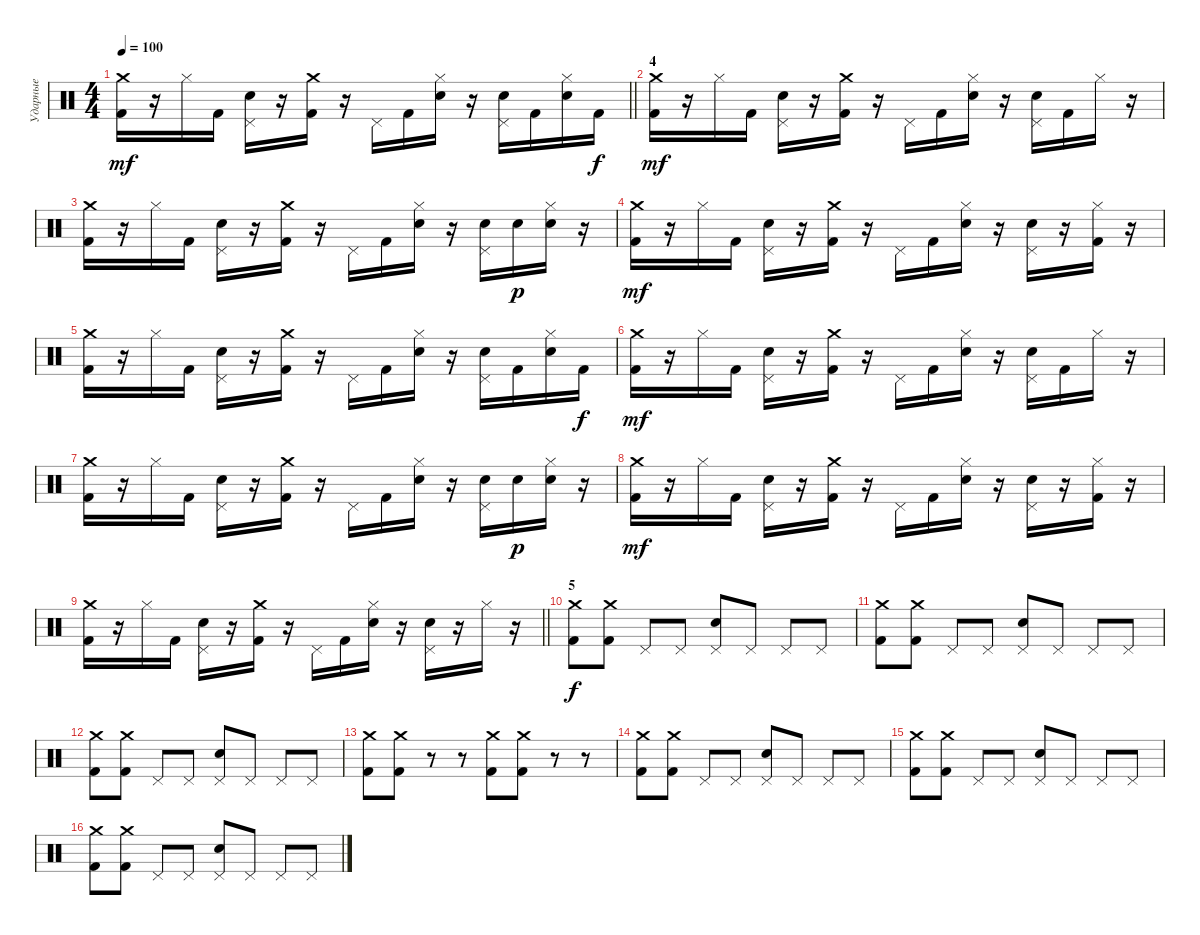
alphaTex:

\track ("Ударные" "Ударные") {instrument percussion}
\staff {score}
\articulation defaults
\ts (4 4)
\tempo 100
\clef neutral
\barLineRight lightlight
\ks c
("Crash medium (hit)" "Kick (hit) 2").16{dy mf} r.16 "Hi-Hat (closed)".16 "Kick (hit) 2".16 ("Pedal Hi-Hat (hit)" "Snare (hit) 2").16 r.16 ("Crash medium (hit)" "Kick (hit) 2").16 r.16 "Pedal Hi-Hat (hit)".16 "Kick (hit) 2".16 ("Hi-Hat (closed)" "Snare (hit) 2").16 r.16 ("Pedal Hi-Hat (hit)" "Snare (hit) 2").16 "Kick (hit) 2".16 ("Hi-Hat (closed)" "Snare (hit) 2").16 "Kick (hit) 2".16{dy f} |
\section ("" "4")
("Crash medium (hit)" "Kick (hit) 2").16{dy mf} r.16 "Hi-Hat (closed)".16 "Kick (hit) 2".16 ("Pedal Hi-Hat (hit)" "Snare (hit) 2").16 r.16 ("Crash medium (hit)" "Kick (hit) 2").16 r.16 "Pedal Hi-Hat (hit)".16 "Kick (hit) 2".16 ("Hi-Hat (closed)" "Snare (hit) 2").16 r.16 ("Pedal Hi-Hat (hit)" "Snare (hit) 2").16 "Kick (hit) 2".16 "Hi-Hat (closed)".16 r.16 |
("Crash medium (hit)" "Kick (hit) 2").16 r.16 "Hi-Hat (closed)".16 "Kick (hit) 2".16 ("Pedal Hi-Hat (hit)" "Snare (hit) 2").16 r.16 ("Crash medium (hit)" "Kick (hit) 2").16 r.16 "Pedal Hi-Hat (hit)".16 "Kick (hit) 2".16 ("Hi-Hat (closed)" "Snare (hit) 2").16 r.16 ("Pedal Hi-Hat (hit)" "Snare (hit) 2").16 "Snare (hit) 2".16{dy p} ("Hi-Hat (closed)" "Snare (hit) 2").16 r.16 |
("Crash medium (hit)" "Kick (hit) 2").16{dy mf} r.16 "Hi-Hat (closed)".16 "Kick (hit) 2".16 ("Pedal Hi-Hat (hit)" "Snare (hit) 2").16 r.16 ("Crash medium (hit)" "Kick (hit) 2").16 r.16 "Pedal Hi-Hat (hit)".16 "Kick (hit) 2".16 ("Hi-Hat (closed)" "Snare (hit) 2").16 r.16 ("Pedal Hi-Hat (hit)" "Snare (hit) 2").16 r.16 ("Hi-Hat (closed)" "Kick (hit) 2").16 r.16 |
("Crash medium (hit)" "Kick (hit) 2").16 r.16 "Hi-Hat (closed)".16 "Kick (hit) 2".16 ("Pedal Hi-Hat (hit)" "Snare (hit) 2").16 r.16 ("Crash medium (hit)" "Kick (hit) 2").16 r.16 "Pedal Hi-Hat (hit)".16 "Kick (hit) 2".16 ("Hi-Hat (closed)" "Snare (hit) 2").16 r.16 ("Pedal Hi-Hat (hit)" "Snare (hit) 2").16 "Kick (hit) 2".16 ("Hi-Hat (closed)" "Snare (hit) 2").16 "Kick (hit) 2".16{dy f} |
("Crash medium (hit)" "Kick (hit) 2").16{dy mf} r.16 "Hi-Hat (closed)".16 "Kick (hit) 2".16 ("Pedal Hi-Hat (hit)" "Snare (hit) 2").16 r.16 ("Crash medium (hit)" "Kick (hit) 2").16 r.16 "Pedal Hi-Hat (hit)".16 "Kick (hit) 2".16 ("Hi-Hat (closed)" "Snare (hit) 2").16 r.16 ("Pedal Hi-Hat (hit)" "Snare (hit) 2").16 "Kick (hit) 2".16 "Hi-Hat (closed)".16 r.16 |
("Crash medium (hit)" "Kick (hit) 2").16 r.16 "Hi-Hat (closed)".16 "Kick (hit) 2".16 ("Pedal Hi-Hat (hit)" "Snare (hit) 2").16 r.16 ("Crash medium (hit)" "Kick (hit) 2").16 r.16 "Pedal Hi-Hat (hit)".16 "Kick (hit) 2".16 ("Hi-Hat (closed)" "Snare (hit) 2").16 r.16 ("Pedal Hi-Hat (hit)" "Snare (hit) 2").16 "Snare (hit) 2".16{dy p} ("Hi-Hat (closed)" "Snare (hit) 2").16 r.16 |
("Crash medium (hit)" "Kick (hit) 2").16{dy mf} r.16 "Hi-Hat (closed)".16 "Kick (hit) 2".16 ("Pedal Hi-Hat (hit)" "Snare (hit) 2").16 r.16 ("Crash medium (hit)" "Kick (hit) 2").16 r.16 "Pedal Hi-Hat (hit)".16 "Kick (hit) 2".16 ("Hi-Hat (closed)" "Snare (hit) 2").16 r.16 ("Pedal Hi-Hat (hit)" "Snare (hit) 2").16 r.16 ("Hi-Hat (closed)" "Kick (hit) 2").16 r.16 |
\barLineRight lightlight
("Crash medium (hit)" "Kick (hit) 2").16 r.16 "Hi-Hat (closed)".16 "Kick (hit) 2".16 ("Pedal Hi-Hat (hit)" "Snare (hit) 2").16 r.16 ("Crash medium (hit)" "Kick (hit) 2").16 r.16 "Pedal Hi-Hat (hit)".16 "Kick (hit) 2".16 ("Hi-Hat (closed)" "Snare (hit) 2").16 r.16 ("Pedal Hi-Hat (hit)" "Snare (hit) 2").16 r.16 "Hi-Hat (closed)".16 r.16 |
\section ("" "5")
("Crash medium (hit)" "Kick (hit) 2").8{dy f} ("Crash medium (hit)" "Kick (hit) 2").8 "Pedal Hi-Hat (hit)".8 "Pedal Hi-Hat (hit)".8 ("Pedal Hi-Hat (hit)" "Snare (hit) 2").8 "Pedal Hi-Hat (hit)".8 "Pedal Hi-Hat (hit)".8 "Pedal Hi-Hat (hit)".8 |
("Crash medium (hit)" "Kick (hit) 2").8 ("Crash medium (hit)" "Kick (hit) 2").8 "Pedal Hi-Hat (hit)".8 "Pedal Hi-Hat (hit)".8 ("Pedal Hi-Hat (hit)" "Snare (hit) 2").8 "Pedal Hi-Hat (hit)".8 "Pedal Hi-Hat (hit)".8 "Pedal Hi-Hat (hit)".8 |
("Crash medium (hit)" "Kick (hit) 2").8 ("Crash medium (hit)" "Kick (hit) 2").8 "Pedal Hi-Hat (hit)".8 "Pedal Hi-Hat (hit)".8 ("Pedal Hi-Hat (hit)" "Snare (hit) 2").8 "Pedal Hi-Hat (hit)".8 "Pedal Hi-Hat (hit)".8 "Pedal Hi-Hat (hit)".8 |
("Crash medium (hit)" "Kick (hit) 2").8 ("Crash medium (hit)" "Kick (hit) 2").8 r.8 r.8 ("Crash medium (hit)" "Kick (hit) 2").8 ("Crash medium (hit)" "Kick (hit) 2").8 r.8 r.8 |
("Crash medium (hit)" "Kick (hit) 2").8 ("Crash medium (hit)" "Kick (hit) 2").8 "Pedal Hi-Hat (hit)".8 "Pedal Hi-Hat (hit)".8 ("Pedal Hi-Hat (hit)" "Snare (hit) 2").8 "Pedal Hi-Hat (hit)".8 "Pedal Hi-Hat (hit)".8 "Pedal Hi-Hat (hit)".8 |
("Crash medium (hit)" "Kick (hit) 2").8 ("Crash medium (hit)" "Kick (hit) 2").8 "Pedal Hi-Hat (hit)".8 "Pedal Hi-Hat (hit)".8 ("Pedal Hi-Hat (hit)" "Snare (hit) 2").8 "Pedal Hi-Hat (hit)".8 "Pedal Hi-Hat (hit)".8 "Pedal Hi-Hat (hit)".8 |
("Crash medium (hit)" "Kick (hit) 2").8 ("Crash medium (hit)" "Kick (hit) 2").8 "Pedal Hi-Hat (hit)".8 "Pedal Hi-Hat (hit)".8 ("Pedal Hi-Hat (hit)" "Snare (hit) 2").8 "Pedal Hi-Hat (hit)".8 "Pedal Hi-Hat (hit)".8 "Pedal Hi-Hat (hit)".8
